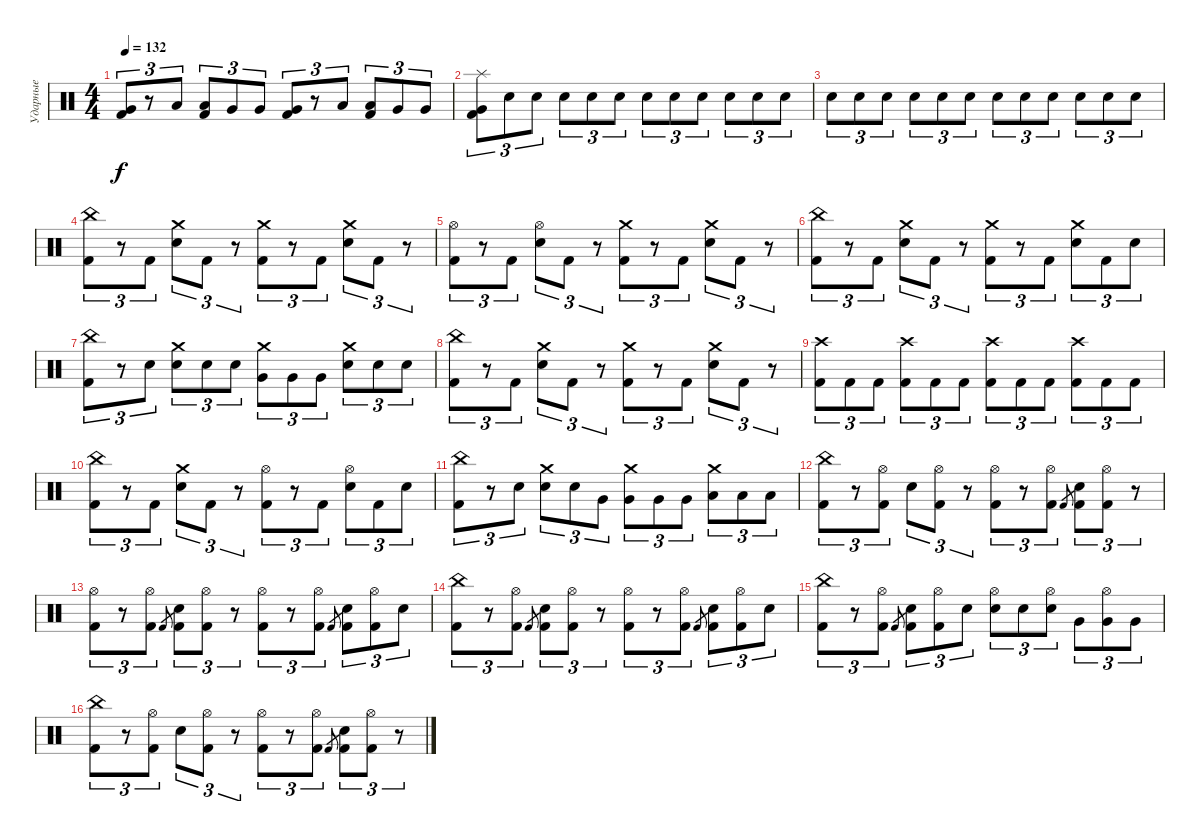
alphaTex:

\track ("Ударные" "Ударные") {instrument percussion}
\staff {score}
\articulation defaults
\ts (4 4)
\tempo 132
\clef neutral
\ks c
("Very Low Tom (hit)" "Kick (hit) 2").8{tu (3 2) dy f} r.8{tu (3 2)} "Low Tom (hit)".8{tu (3 2)} ("Low Tom (hit)" "Kick (hit) 2").8{tu (3 2)} "Very Low Tom (hit)".8{tu (3 2)} "Very Low Tom (hit)".8{tu (3 2)} ("Very Low Tom (hit)" "Kick (hit) 2").8{tu (3 2)} r.8{tu (3 2)} "Low Tom (hit)".8{tu (3 2)} ("Low Tom (hit)" "Kick (hit) 2").8{tu (3 2)} "Very Low Tom (hit)".8{tu (3 2)} "Very Low Tom (hit)".8{tu (3 2)} |
("Splash (hit)" "Very Low Tom (hit)" "Kick (hit) 2").8{tu (3 2)} "Snare (hit) 2".8{tu (3 2)} "Snare (hit) 2".8{tu (3 2)} "Snare (hit) 2".8{tu (3 2)} "Snare (hit) 2".8{tu (3 2)} "Snare (hit) 2".8{tu (3 2)} "Snare (hit) 2".8{tu (3 2)} "Snare (hit) 2".8{tu (3 2)} "Snare (hit) 2".8{tu (3 2)} "Snare (hit) 2".8{tu (3 2)} "Snare (hit) 2".8{tu (3 2)} "Snare (hit) 2".8{tu (3 2)} |
"Snare (hit) 2".8{tu (3 2)} "Snare (hit) 2".8{tu (3 2)} "Snare (hit) 2".8{tu (3 2)} "Snare (hit) 2".8{tu (3 2)} "Snare (hit) 2".8{tu (3 2)} "Snare (hit) 2".8{tu (3 2)} "Snare (hit) 2".8{tu (3 2)} "Snare (hit) 2".8{tu (3 2)} "Snare (hit) 2".8{tu (3 2)} "Snare (hit) 2".8{tu (3 2)} "Snare (hit) 2".8{tu (3 2)} "Snare (hit) 2".8{tu (3 2)} |
("China (hit)" "Kick (hit) 2").8{tu (3 2)} r.8{tu (3 2)} "Kick (hit) 2".8{tu (3 2)} ("Crash medium (hit)" "Snare (hit) 2").8{tu (3 2)} "Kick (hit) 2".8{tu (3 2)} r.8{tu (3 2)} ("Crash medium (hit)" "Kick (hit) 2").8{tu (3 2)} r.8{tu (3 2)} "Kick (hit) 2".8{tu (3 2)} ("Crash medium (hit)" "Snare (hit) 2").8{tu (3 2)} "Kick (hit) 2".8{tu (3 2)} r.8{tu (3 2)} |
("Hi-Hat (open)" "Kick (hit) 2").8{tu (3 2)} r.8{tu (3 2)} "Kick (hit) 2".8{tu (3 2)} ("Hi-Hat (open)" "Snare (hit) 2").8{tu (3 2)} "Kick (hit) 2".8{tu (3 2)} r.8{tu (3 2)} ("Crash medium (hit)" "Kick (hit) 2").8{tu (3 2)} r.8{tu (3 2)} "Kick (hit) 2".8{tu (3 2)} ("Crash medium (hit)" "Snare (hit) 2").8{tu (3 2)} "Kick (hit) 2".8{tu (3 2)} r.8{tu (3 2)} |
("China (hit)" "Kick (hit) 2").8{tu (3 2)} r.8{tu (3 2)} "Kick (hit) 2".8{tu (3 2)} ("Crash medium (hit)" "Snare (hit) 2").8{tu (3 2)} "Kick (hit) 2".8{tu (3 2)} r.8{tu (3 2)} ("Crash medium (hit)" "Kick (hit) 2").8{tu (3 2)} r.8{tu (3 2)} "Kick (hit) 2".8{tu (3 2)} ("Crash medium (hit)" "Snare (hit) 2").8{tu (3 2)} "Kick (hit) 2".8{tu (3 2)} "Snare (hit) 2".8{tu (3 2)} |
("China (hit)" "Kick (hit) 2").8{tu (3 2)} r.8{tu (3 2)} "Snare (hit) 2".8{tu (3 2)} ("Crash medium (hit)" "Snare (hit) 2").8{tu (3 2)} "Snare (hit) 2".8{tu (3 2)} "Snare (hit) 2".8{tu (3 2)} ("Crash medium (hit)" "Very Low Tom (hit)").8{tu (3 2)} "Very Low Tom (hit)".8{tu (3 2)} "Very Low Tom (hit)".8{tu (3 2)} ("Crash medium (hit)" "Snare (hit) 2").8{tu (3 2)} "Snare (hit) 2".8{tu (3 2)} "Snare (hit) 2".8{tu (3 2)} |
("China (hit)" "Kick (hit) 2").8{tu (3 2)} r.8{tu (3 2)} "Kick (hit) 2".8{tu (3 2)} ("Crash medium (hit)" "Snare (hit) 2").8{tu (3 2)} "Kick (hit) 2".8{tu (3 2)} r.8{tu (3 2)} ("Crash medium (hit)" "Kick (hit) 2").8{tu (3 2)} r.8{tu (3 2)} "Kick (hit) 2".8{tu (3 2)} ("Crash medium (hit)" "Snare (hit) 2").8{tu (3 2)} "Kick (hit) 2".8{tu (3 2)} r.8{tu (3 2)} |
("Crash high (hit)" "Kick (hit) 2").8{tu (3 2)} "Kick (hit) 2".8{tu (3 2)} "Kick (hit) 2".8{tu (3 2)} ("Crash high (hit)" "Kick (hit) 2").8{tu (3 2)} "Kick (hit) 2".8{tu (3 2)} "Kick (hit) 2".8{tu (3 2)} ("Crash high (hit)" "Kick (hit) 2").8{tu (3 2)} "Kick (hit) 2".8{tu (3 2)} "Kick (hit) 2".8{tu (3 2)} ("Crash high (hit)" "Kick (hit) 2").8{tu (3 2)} "Kick (hit) 2".8{tu (3 2)} "Kick (hit) 2".8{tu (3 2)} |
("China (hit)" "Kick (hit) 2").8{tu (3 2)} r.8{tu (3 2)} "Kick (hit) 2".8{tu (3 2)} ("Crash medium (hit)" "Snare (hit) 2").8{tu (3 2)} "Kick (hit) 2".8{tu (3 2)} r.8{tu (3 2)} ("Hi-Hat (open)" "Kick (hit) 2").8{tu (3 2)} r.8{tu (3 2)} "Kick (hit) 2".8{tu (3 2)} ("Hi-Hat (open)" "Snare (hit) 2").8{tu (3 2)} "Kick (hit) 2".8{tu (3 2)} "Snare (hit) 2".8{tu (3 2)} |
("China (hit)" "Kick (hit) 2").8{tu (3 2)} r.8{tu (3 2)} "Snare (hit) 2".8{tu (3 2)} ("Crash medium (hit)" "Snare (hit) 2").8{tu (3 2)} "Snare (hit) 2".8{tu (3 2)} "Very Low Tom (hit)".8{tu (3 2)} ("Crash medium (hit)" "Very Low Tom (hit)").8{tu (3 2)} "Very Low Tom (hit)".8{tu (3 2)} "Very Low Tom (hit)".8{tu (3 2)} ("Crash medium (hit)" "Low Tom (hit)").8{tu (3 2)} "Low Tom (hit)".8{tu (3 2)} "Low Tom (hit)".8{tu (3 2)} |
("China (hit)" "Kick (hit) 2").8{tu (3 2)} r.8{tu (3 2)} ("Hi-Hat (open)" "Kick (hit) 2").8{tu (3 2)} "Snare (hit) 2".8{tu (3 2)} ("Hi-Hat (open)" "Kick (hit) 2").8{tu (3 2)} r.8{tu (3 2)} ("Hi-Hat (open)" "Kick (hit) 2").8{tu (3 2)} r.8{tu (3 2)} ("Hi-Hat (open)" "Kick (hit) 2").8{tu (3 2)} "Kick (hit) 2".8{gr} ("Snare (hit) 2" "Kick (hit) 2").8{tu (3 2)} ("Hi-Hat (open)" "Kick (hit) 2").8{tu (3 2)} r.8{tu (3 2)} |
("Hi-Hat (open)" "Kick (hit) 2").8{tu (3 2)} r.8{tu (3 2)} ("Hi-Hat (open)" "Kick (hit) 2").8{tu (3 2)} "Kick (hit) 2".8{gr} ("Snare (hit) 2" "Kick (hit) 2").8{tu (3 2)} ("Hi-Hat (open)" "Kick (hit) 2").8{tu (3 2)} r.8{tu (3 2)} ("Hi-Hat (open)" "Kick (hit) 2").8{tu (3 2)} r.8{tu (3 2)} ("Hi-Hat (open)" "Kick (hit) 2").8{tu (3 2)} "Kick (hit) 2".8{gr} ("Snare (hit) 2" "Kick (hit) 2").8{tu (3 2)} ("Hi-Hat (open)" "Kick (hit) 2").8{tu (3 2)} "Snare (hit) 2".8{tu (3 2)} |
("China (hit)" "Kick (hit) 2").8{tu (3 2)} r.8{tu (3 2)} ("Hi-Hat (open)" "Kick (hit) 2").8{tu (3 2)} "Kick (hit) 2".8{gr} ("Snare (hit) 2" "Kick (hit) 2").8{tu (3 2)} ("Hi-Hat (open)" "Kick (hit) 2").8{tu (3 2)} r.8{tu (3 2)} ("Hi-Hat (open)" "Kick (hit) 2").8{tu (3 2)} r.8{tu (3 2)} ("Hi-Hat (open)" "Kick (hit) 2").8{tu (3 2)} "Kick (hit) 2".8{gr} ("Snare (hit) 2" "Kick (hit) 2").8{tu (3 2)} ("Hi-Hat (open)" "Kick (hit) 2").8{tu (3 2)} "Snare (hit) 2".8{tu (3 2)} |
("China (hit)" "Kick (hit) 2").8{tu (3 2)} r.8{tu (3 2)} ("Hi-Hat (open)" "Kick (hit) 2").8{tu (3 2)} "Kick (hit) 2".8{gr} ("Snare (hit) 2" "Kick (hit) 2").8{tu (3 2)} ("Hi-Hat (open)" "Kick (hit) 2").8{tu (3 2)} "Snare (hit) 2".8{tu (3 2)} ("Hi-Hat (open)" "Snare (hit) 2").8{tu (3 2)} "Snare (hit) 2".8{tu (3 2)} ("Hi-Hat (open)" "Snare (hit) 2").8{tu (3 2)} "Very Low Tom (hit)".8{tu (3 2)} ("Hi-Hat (open)" "Very Low Tom (hit)").8{tu (3 2)} "Very Low Tom (hit)".8{tu (3 2)} |
("China (hit)" "Kick (hit) 2").8{tu (3 2)} r.8{tu (3 2)} ("Hi-Hat (open)" "Kick (hit) 2").8{tu (3 2)} "Snare (hit) 2".8{tu (3 2)} ("Hi-Hat (open)" "Kick (hit) 2").8{tu (3 2)} r.8{tu (3 2)} ("Hi-Hat (open)" "Kick (hit) 2").8{tu (3 2)} r.8{tu (3 2)} ("Hi-Hat (open)" "Kick (hit) 2").8{tu (3 2)} "Kick (hit) 2".8{gr} ("Snare (hit) 2" "Kick (hit) 2").8{tu (3 2)} ("Hi-Hat (open)" "Kick (hit) 2").8{tu (3 2)} r.8{tu (3 2)}
